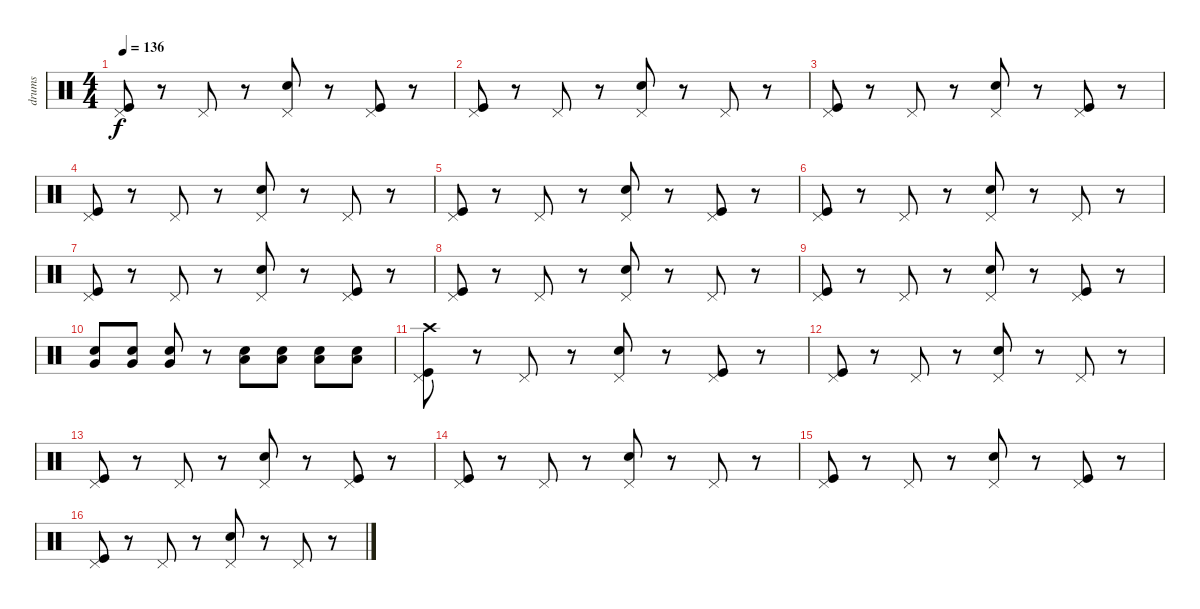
\track ("drums" "drums") {instrument percussion}
\staff {score}
\articulation defaults
\ts (4 4)
\tempo 136
\clef neutral
\ks c
("Kick (hit)" "Pedal Hi-Hat (hit)").8{dy f} r.8 "Pedal Hi-Hat (hit)".8 r.8 ("Snare (hit) 2" "Pedal Hi-Hat (hit)").8 r.8 ("Kick (hit)" "Pedal Hi-Hat (hit)").8 r.8 |
("Kick (hit)" "Pedal Hi-Hat (hit)").8 r.8 "Pedal Hi-Hat (hit)".8 r.8 ("Snare (hit) 2" "Pedal Hi-Hat (hit)").8 r.8 "Pedal Hi-Hat (hit)".8 r.8 |
("Kick (hit)" "Pedal Hi-Hat (hit)").8 r.8 "Pedal Hi-Hat (hit)".8 r.8 ("Snare (hit) 2" "Pedal Hi-Hat (hit)").8 r.8 ("Kick (hit)" "Pedal Hi-Hat (hit)").8 r.8 |
("Kick (hit)" "Pedal Hi-Hat (hit)").8 r.8 "Pedal Hi-Hat (hit)".8 r.8 ("Snare (hit) 2" "Pedal Hi-Hat (hit)").8 r.8 "Pedal Hi-Hat (hit)".8 r.8 |
("Kick (hit)" "Pedal Hi-Hat (hit)").8 r.8 "Pedal Hi-Hat (hit)".8 r.8 ("Snare (hit) 2" "Pedal Hi-Hat (hit)").8 r.8 ("Kick (hit)" "Pedal Hi-Hat (hit)").8 r.8 |
("Kick (hit)" "Pedal Hi-Hat (hit)").8 r.8 "Pedal Hi-Hat (hit)".8 r.8 ("Snare (hit) 2" "Pedal Hi-Hat (hit)").8 r.8 "Pedal Hi-Hat (hit)".8 r.8 |
("Kick (hit)" "Pedal Hi-Hat (hit)").8 r.8 "Pedal Hi-Hat (hit)".8 r.8 ("Snare (hit) 2" "Pedal Hi-Hat (hit)").8 r.8 ("Kick (hit)" "Pedal Hi-Hat (hit)").8 r.8 |
("Kick (hit)" "Pedal Hi-Hat (hit)").8 r.8 "Pedal Hi-Hat (hit)".8 r.8 ("Snare (hit) 2" "Pedal Hi-Hat (hit)").8 r.8 "Pedal Hi-Hat (hit)".8 r.8 |
("Kick (hit)" "Pedal Hi-Hat (hit)").8 r.8 "Pedal Hi-Hat (hit)".8 r.8 ("Snare (hit) 2" "Pedal Hi-Hat (hit)").8 r.8 ("Kick (hit)" "Pedal Hi-Hat (hit)").8 r.8 |
("Very Low Tom (hit)" "Snare (hit) 2").8 ("Very Low Tom (hit)" "Snare (hit) 2").8 ("Very Low Tom (hit)" "Snare (hit) 2").8 r.8 ("Low Tom (hit)" "Snare (hit) 2").8 ("Low Tom (hit)" "Snare (hit) 2").8 ("Low Tom (hit)" "Snare (hit) 2").8 ("Low Tom (hit)" "Snare (hit) 2").8 |
("Kick (hit)" "Crash high (hit)" "Pedal Hi-Hat (hit)").8 r.8 "Pedal Hi-Hat (hit)".8 r.8 ("Snare (hit) 2" "Pedal Hi-Hat (hit)").8 r.8 ("Kick (hit)" "Pedal Hi-Hat (hit)").8 r.8 |
("Kick (hit)" "Pedal Hi-Hat (hit)").8 r.8 "Pedal Hi-Hat (hit)".8 r.8 ("Snare (hit) 2" "Pedal Hi-Hat (hit)").8 r.8 "Pedal Hi-Hat (hit)".8 r.8 |
("Kick (hit)" "Pedal Hi-Hat (hit)").8 r.8 "Pedal Hi-Hat (hit)".8 r.8 ("Snare (hit) 2" "Pedal Hi-Hat (hit)").8 r.8 ("Kick (hit)" "Pedal Hi-Hat (hit)").8 r.8 |
("Kick (hit)" "Pedal Hi-Hat (hit)").8 r.8 "Pedal Hi-Hat (hit)".8 r.8 ("Snare (hit) 2" "Pedal Hi-Hat (hit)").8 r.8 "Pedal Hi-Hat (hit)".8 r.8 |
("Kick (hit)" "Pedal Hi-Hat (hit)").8 r.8 "Pedal Hi-Hat (hit)".8 r.8 ("Snare (hit) 2" "Pedal Hi-Hat (hit)").8 r.8 ("Kick (hit)" "Pedal Hi-Hat (hit)").8 r.8 |
("Kick (hit)" "Pedal Hi-Hat (hit)").8 r.8 "Pedal Hi-Hat (hit)".8 r.8 ("Snare (hit) 2" "Pedal Hi-Hat (hit)").8 r.8 "Pedal Hi-Hat (hit)".8 r.8
